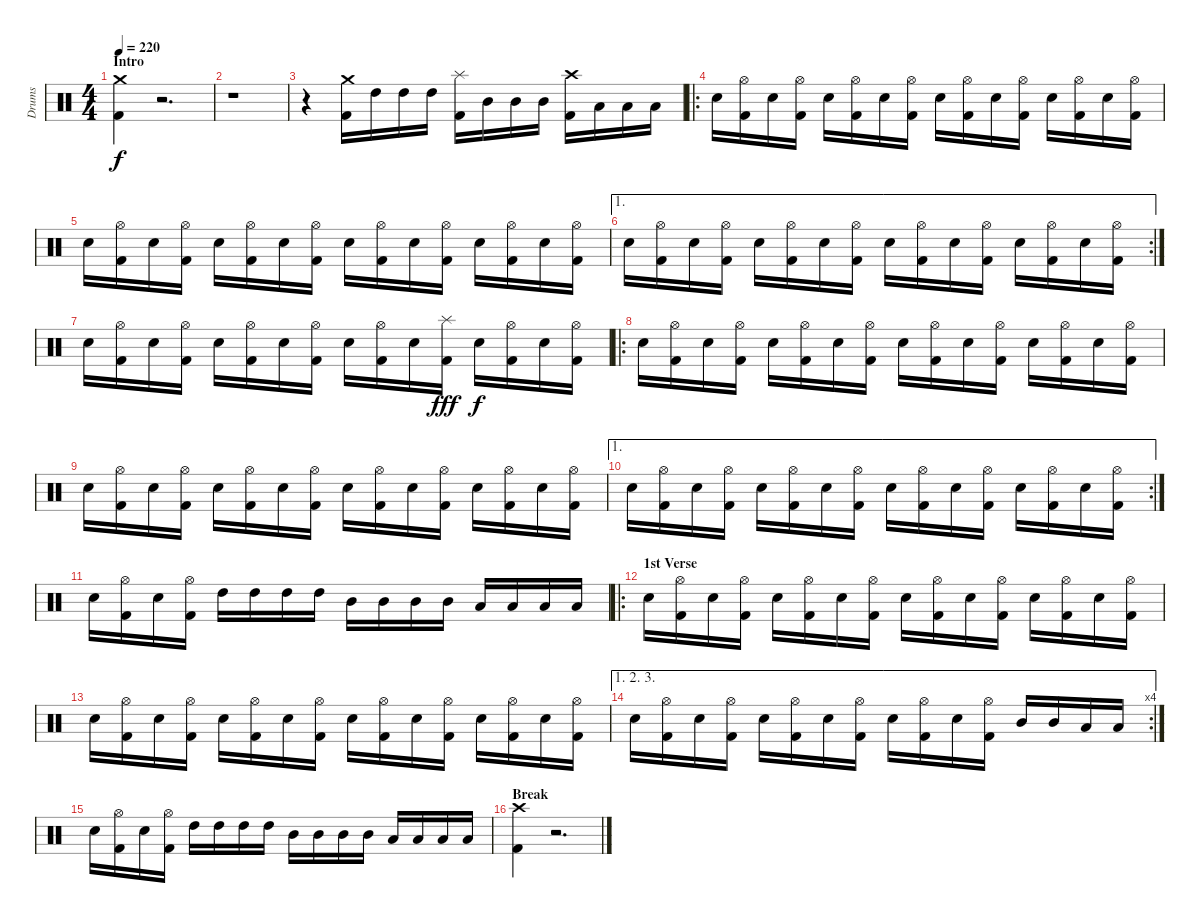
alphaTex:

\track ("Drums" "Drums") {instrument percussion}
\staff {score}
\articulation defaults
\ts (4 4)
\section ("" "Intro")
\tempo 220
\clef neutral
\ks c
("Crash medium (hit)" "Kick (hit) 2").4{dy f} r.2{d} |
r.1 |
r.4 ("Crash medium (hit)" "Kick (hit) 2").16 "High Tom (hit)".16 "High Tom (hit)".16 "High Tom (hit)".16 ("Splash (hit)" "Kick (hit) 2").16 "Mid Tom (hit)".16 "Mid Tom (hit)".16 "Mid Tom (hit)".16 ("Crash high (hit)" "Kick (hit) 2").16 "Low Tom (hit)".16 "Low Tom (hit)".16 "Low Tom (hit)".16 |
\ro "Electric Snare (hit)".16
("Hi-Hat (open)" "Kick (hit) 2").16 "Electric Snare (hit)".16 ("Hi-Hat (open)" "Kick (hit) 2").16 "Electric Snare (hit)".16 ("Hi-Hat (open)" "Kick (hit) 2").16 "Electric Snare (hit)".16 ("Hi-Hat (open)" "Kick (hit) 2").16 "Electric Snare (hit)".16 ("Hi-Hat (open)" "Kick (hit) 2").16 "Electric Snare (hit)".16 ("Hi-Hat (open)" "Kick (hit) 2").16 "Electric Snare (hit)".16 ("Hi-Hat (open)" "Kick (hit) 2").16 "Electric Snare (hit)".16 ("Hi-Hat (open)" "Kick (hit) 2").16 |
"Electric Snare (hit)".16 ("Hi-Hat (open)" "Kick (hit) 2").16 "Electric Snare (hit)".16 ("Hi-Hat (open)" "Kick (hit) 2").16 "Electric Snare (hit)".16 ("Hi-Hat (open)" "Kick (hit) 2").16 "Electric Snare (hit)".16 ("Hi-Hat (open)" "Kick (hit) 2").16 "Electric Snare (hit)".16 ("Hi-Hat (open)" "Kick (hit) 2").16 "Electric Snare (hit)".16 ("Hi-Hat (open)" "Kick (hit) 2").16 "Electric Snare (hit)".16 ("Hi-Hat (open)" "Kick (hit) 2").16 "Electric Snare (hit)".16 ("Hi-Hat (open)" "Kick (hit) 2").16 |
\ae 1
\rc 2 "Electric Snare (hit)".16
("Hi-Hat (open)" "Kick (hit) 2").16 "Electric Snare (hit)".16 ("Hi-Hat (open)" "Kick (hit) 2").16 "Electric Snare (hit)".16 ("Hi-Hat (open)" "Kick (hit) 2").16 "Electric Snare (hit)".16 ("Hi-Hat (open)" "Kick (hit) 2").16 "Electric Snare (hit)".16 ("Hi-Hat (open)" "Kick (hit) 2").16 "Electric Snare (hit)".16 ("Hi-Hat (open)" "Kick (hit) 2").16 "Electric Snare (hit)".16 ("Hi-Hat (open)" "Kick (hit) 2").16 "Electric Snare (hit)".16 ("Hi-Hat (open)" "Kick (hit) 2").16 |
"Electric Snare (hit)".16 ("Hi-Hat (open)" "Kick (hit) 2").16 "Electric Snare (hit)".16 ("Hi-Hat (open)" "Kick (hit) 2").16 "Electric Snare (hit)".16 ("Hi-Hat (open)" "Kick (hit) 2").16 "Electric Snare (hit)".16 ("Hi-Hat (open)" "Kick (hit) 2").16 "Electric Snare (hit)".16 ("Hi-Hat (open)" "Kick (hit) 2").16 "Electric Snare (hit)".16 ("Splash (hit)" "Kick (hit) 2").16{dy fff} "Electric Snare (hit)".16{dy f} ("Hi-Hat (open)" "Kick (hit) 2").16 "Electric Snare (hit)".16 ("Hi-Hat (open)" "Kick (hit) 2").16 |
\ro "Electric Snare (hit)".16
("Hi-Hat (open)" "Kick (hit) 2").16 "Electric Snare (hit)".16 ("Hi-Hat (open)" "Kick (hit) 2").16 "Electric Snare (hit)".16 ("Hi-Hat (open)" "Kick (hit) 2").16 "Electric Snare (hit)".16 ("Hi-Hat (open)" "Kick (hit) 2").16 "Electric Snare (hit)".16 ("Hi-Hat (open)" "Kick (hit) 2").16 "Electric Snare (hit)".16 ("Hi-Hat (open)" "Kick (hit) 2").16 "Electric Snare (hit)".16 ("Hi-Hat (open)" "Kick (hit) 2").16 "Electric Snare (hit)".16 ("Hi-Hat (open)" "Kick (hit) 2").16 |
"Electric Snare (hit)".16 ("Hi-Hat (open)" "Kick (hit) 2").16 "Electric Snare (hit)".16 ("Hi-Hat (open)" "Kick (hit) 2").16 "Electric Snare (hit)".16 ("Hi-Hat (open)" "Kick (hit) 2").16 "Electric Snare (hit)".16 ("Hi-Hat (open)" "Kick (hit) 2").16 "Electric Snare (hit)".16 ("Hi-Hat (open)" "Kick (hit) 2").16 "Electric Snare (hit)".16 ("Hi-Hat (open)" "Kick (hit) 2").16 "Electric Snare (hit)".16 ("Hi-Hat (open)" "Kick (hit) 2").16 "Electric Snare (hit)".16 ("Hi-Hat (open)" "Kick (hit) 2").16 |
\ae 1
\rc 2 "Electric Snare (hit)".16
("Hi-Hat (open)" "Kick (hit) 2").16 "Electric Snare (hit)".16 ("Hi-Hat (open)" "Kick (hit) 2").16 "Electric Snare (hit)".16 ("Hi-Hat (open)" "Kick (hit) 2").16 "Electric Snare (hit)".16 ("Hi-Hat (open)" "Kick (hit) 2").16 "Electric Snare (hit)".16 ("Hi-Hat (open)" "Kick (hit) 2").16 "Electric Snare (hit)".16 ("Hi-Hat (open)" "Kick (hit) 2").16 "Electric Snare (hit)".16 ("Hi-Hat (open)" "Kick (hit) 2").16 "Electric Snare (hit)".16 ("Hi-Hat (open)" "Kick (hit) 2").16 |
"Electric Snare (hit)".16 ("Hi-Hat (open)" "Kick (hit) 2").16 "Electric Snare (hit)".16 ("Hi-Hat (open)" "Kick (hit) 2").16 "High Tom (hit)".16 "High Tom (hit)".16 "High Tom (hit)".16 "High Tom (hit)".16 "Mid Tom (hit)".16 "Mid Tom (hit)".16 "Mid Tom (hit)".16 "Mid Tom (hit)".16 "Low Tom (hit)".16 "Low Tom (hit)".16 "Low Tom (hit)".16 "Low Tom (hit)".16 |
\ro
\section ("" "1st Verse")
"Electric Snare (hit)".16 ("Hi-Hat (open)" "Kick (hit) 2").16 "Electric Snare (hit)".16 ("Hi-Hat (open)" "Kick (hit) 2").16 "Electric Snare (hit)".16 ("Hi-Hat (open)" "Kick (hit) 2").16 "Electric Snare (hit)".16 ("Hi-Hat (open)" "Kick (hit) 2").16 "Electric Snare (hit)".16 ("Hi-Hat (open)" "Kick (hit) 2").16 "Electric Snare (hit)".16 ("Hi-Hat (open)" "Kick (hit) 2").16 "Electric Snare (hit)".16 ("Hi-Hat (open)" "Kick (hit) 2").16 "Electric Snare (hit)".16 ("Hi-Hat (open)" "Kick (hit) 2").16 |
"Electric Snare (hit)".16 ("Hi-Hat (open)" "Kick (hit) 2").16 "Electric Snare (hit)".16 ("Hi-Hat (open)" "Kick (hit) 2").16 "Electric Snare (hit)".16 ("Hi-Hat (open)" "Kick (hit) 2").16 "Electric Snare (hit)".16 ("Hi-Hat (open)" "Kick (hit) 2").16 "Electric Snare (hit)".16 ("Hi-Hat (open)" "Kick (hit) 2").16 "Electric Snare (hit)".16 ("Hi-Hat (open)" "Kick (hit) 2").16 "Electric Snare (hit)".16 ("Hi-Hat (open)" "Kick (hit) 2").16 "Electric Snare (hit)".16 ("Hi-Hat (open)" "Kick (hit) 2").16 |
\ae (1 2 3)
\rc 4 "Electric Snare (hit)".16
("Hi-Hat (open)" "Kick (hit) 2").16 "Electric Snare (hit)".16 ("Hi-Hat (open)" "Kick (hit) 2").16 "Electric Snare (hit)".16 ("Hi-Hat (open)" "Kick (hit) 2").16 "Electric Snare (hit)".16 ("Hi-Hat (open)" "Kick (hit) 2").16 "Electric Snare (hit)".16 ("Hi-Hat (open)" "Kick (hit) 2").16 "Electric Snare (hit)".16 ("Hi-Hat (open)" "Kick (hit) 2").16 "Mid Tom (hit)".16 "Mid Tom (hit)".16 "Low Tom (hit)".16 "Low Tom (hit)".16 |
"Electric Snare (hit)".16 ("Hi-Hat (open)" "Kick (hit) 2").16 "Electric Snare (hit)".16 ("Hi-Hat (open)" "Kick (hit) 2").16 "High Tom (hit)".16 "High Tom (hit)".16 "High Tom (hit)".16 "High Tom (hit)".16 "Mid Tom (hit)".16 "Mid Tom (hit)".16 "Mid Tom (hit)".16 "Mid Tom (hit)".16 "Low Tom (hit)".16 "Low Tom (hit)".16 "Low Tom (hit)".16 "Low Tom (hit)".16 |
\section ("" "Break")
("Crash high (hit)" "Kick (hit) 2").4 r.2{d}
